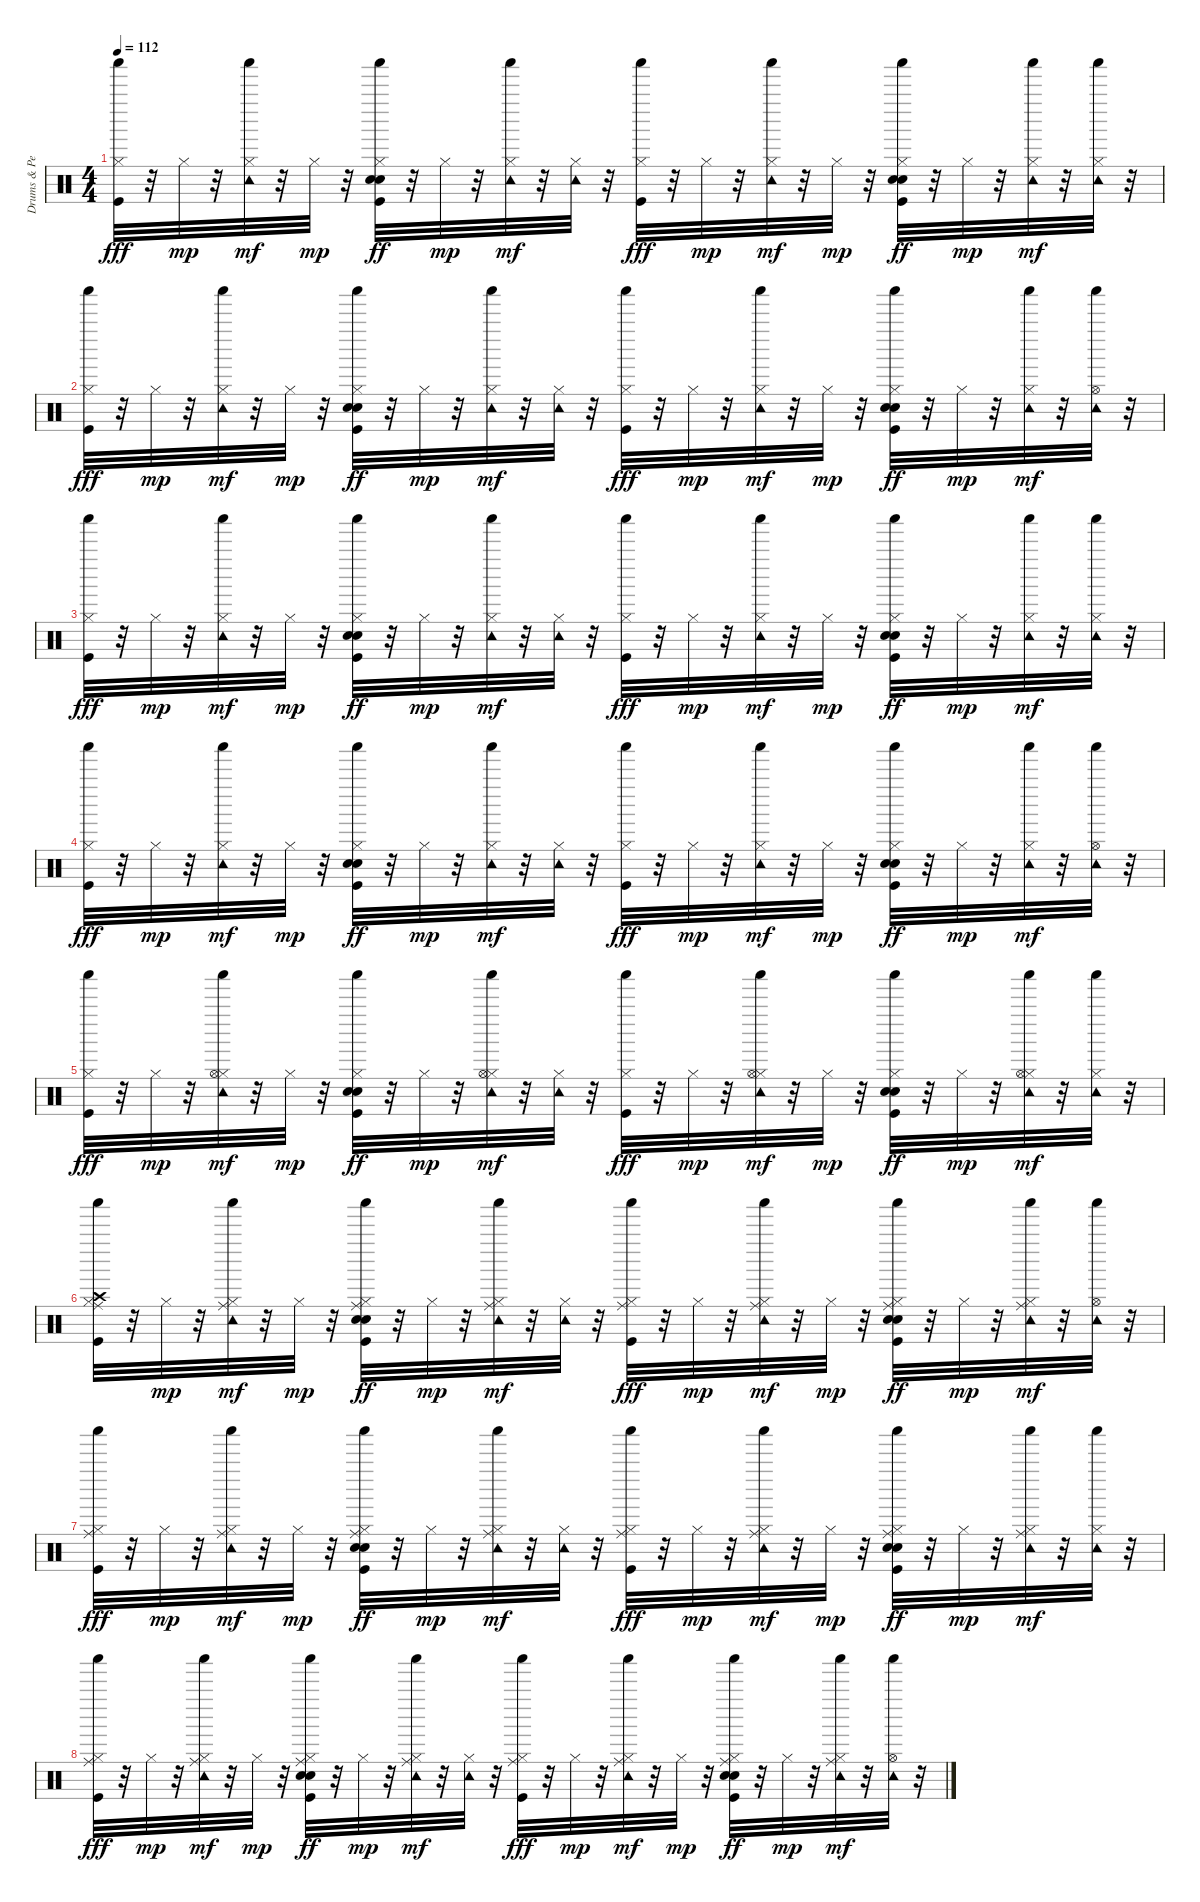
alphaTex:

\track ("Drums & Percussion" "Drums & Pe") {instrument percussion}
\staff {score}
\articulation defaults
\ts (4 4)
\tempo 112
\clef neutral
\ks c
("Shaker (hit)" "Hi-Hat (closed)" "Kick (hit)").32{dy fff} r.32 "Hi-Hat (closed)".32{dy mp} r.32 ("Shaker (hit)" "Hi-Hat (closed)" "Tambourine (hit)").32{dy mf} r.32 "Hi-Hat (closed)".32{dy mp} r.32 ("Shaker (hit)" "Snare (hit) 2" "Hi-Hat (closed)" "Hand Clap (hit)" "Kick (hit)").32{dy ff} r.32 "Hi-Hat (closed)".32{dy mp} r.32 ("Shaker (hit)" "Hi-Hat (closed)" "Tambourine (hit)").32{dy mf} r.32 ("Hi-Hat (closed)" "Tambourine (hit)").32 r.32 ("Shaker (hit)" "Hi-Hat (closed)" "Kick (hit)").32{dy fff} r.32 "Hi-Hat (closed)".32{dy mp} r.32 ("Shaker (hit)" "Hi-Hat (closed)" "Tambourine (hit)").32{dy mf} r.32 "Hi-Hat (closed)".32{dy mp} r.32 ("Shaker (hit)" "Snare (hit) 2" "Hi-Hat (closed)" "Hand Clap (hit)" "Kick (hit)").32{dy ff} r.32 "Hi-Hat (closed)".32{dy mp} r.32 ("Shaker (hit)" "Hi-Hat (closed)" "Tambourine (hit)").32{dy mf} r.32 ("Shaker (hit)" "Hi-Hat (closed)" "Tambourine (hit)").32 r.32 |
("Shaker (hit)" "Hi-Hat (closed)" "Kick (hit)").32{dy fff} r.32 "Hi-Hat (closed)".32{dy mp} r.32 ("Shaker (hit)" "Hi-Hat (closed)" "Tambourine (hit)").32{dy mf} r.32 "Hi-Hat (closed)".32{dy mp} r.32 ("Shaker (hit)" "Snare (hit) 2" "Hi-Hat (closed)" "Hand Clap (hit)" "Kick (hit)").32{dy ff} r.32 "Hi-Hat (closed)".32{dy mp} r.32 ("Shaker (hit)" "Hi-Hat (closed)" "Tambourine (hit)").32{dy mf} r.32 ("Hi-Hat (closed)" "Tambourine (hit)").32 r.32 ("Shaker (hit)" "Hi-Hat (closed)" "Kick (hit)").32{dy fff} r.32 "Hi-Hat (closed)".32{dy mp} r.32 ("Shaker (hit)" "Hi-Hat (closed)" "Tambourine (hit)").32{dy mf} r.32 "Hi-Hat (closed)".32{dy mp} r.32 ("Shaker (hit)" "Snare (hit) 2" "Hi-Hat (closed)" "Hand Clap (hit)" "Kick (hit)").32{dy ff} r.32 "Hi-Hat (closed)".32{dy mp} r.32 ("Shaker (hit)" "Hi-Hat (closed)" "Tambourine (hit)").32{dy mf} r.32 ("Hi-Hat (open)" "Shaker (hit)" "Tambourine (hit)").32 r.32 |
("Shaker (hit)" "Hi-Hat (closed)" "Kick (hit)").32{dy fff} r.32 "Hi-Hat (closed)".32{dy mp} r.32 ("Shaker (hit)" "Hi-Hat (closed)" "Tambourine (hit)").32{dy mf} r.32 "Hi-Hat (closed)".32{dy mp} r.32 ("Shaker (hit)" "Snare (hit) 2" "Hi-Hat (closed)" "Hand Clap (hit)" "Kick (hit)").32{dy ff} r.32 "Hi-Hat (closed)".32{dy mp} r.32 ("Shaker (hit)" "Hi-Hat (closed)" "Tambourine (hit)").32{dy mf} r.32 ("Hi-Hat (closed)" "Tambourine (hit)").32 r.32 ("Shaker (hit)" "Hi-Hat (closed)" "Kick (hit)").32{dy fff} r.32 "Hi-Hat (closed)".32{dy mp} r.32 ("Shaker (hit)" "Hi-Hat (closed)" "Tambourine (hit)").32{dy mf} r.32 "Hi-Hat (closed)".32{dy mp} r.32 ("Shaker (hit)" "Snare (hit) 2" "Hi-Hat (closed)" "Hand Clap (hit)" "Kick (hit)").32{dy ff} r.32 "Hi-Hat (closed)".32{dy mp} r.32 ("Shaker (hit)" "Hi-Hat (closed)" "Tambourine (hit)").32{dy mf} r.32 ("Shaker (hit)" "Hi-Hat (closed)" "Tambourine (hit)").32 r.32 |
("Shaker (hit)" "Hi-Hat (closed)" "Kick (hit)").32{dy fff} r.32 "Hi-Hat (closed)".32{dy mp} r.32 ("Shaker (hit)" "Hi-Hat (closed)" "Tambourine (hit)").32{dy mf} r.32 "Hi-Hat (closed)".32{dy mp} r.32 ("Shaker (hit)" "Snare (hit) 2" "Hi-Hat (closed)" "Hand Clap (hit)" "Kick (hit)").32{dy ff} r.32 "Hi-Hat (closed)".32{dy mp} r.32 ("Shaker (hit)" "Hi-Hat (closed)" "Tambourine (hit)").32{dy mf} r.32 ("Hi-Hat (closed)" "Tambourine (hit)").32 r.32 ("Shaker (hit)" "Hi-Hat (closed)" "Kick (hit)").32{dy fff} r.32 "Hi-Hat (closed)".32{dy mp} r.32 ("Shaker (hit)" "Hi-Hat (closed)" "Tambourine (hit)").32{dy mf} r.32 "Hi-Hat (closed)".32{dy mp} r.32 ("Shaker (hit)" "Snare (hit) 2" "Hi-Hat (closed)" "Hand Clap (hit)" "Kick (hit)").32{dy ff} r.32 "Hi-Hat (closed)".32{dy mp} r.32 ("Shaker (hit)" "Hi-Hat (closed)" "Tambourine (hit)").32{dy mf} r.32 ("Hi-Hat (open)" "Shaker (hit)" "Tambourine (hit)").32 r.32 |
("Shaker (hit)" "Hi-Hat (closed)" "Kick (hit)").32{dy fff} r.32 "Hi-Hat (closed)".32{dy mp} r.32 ("Shaker (hit)" "Hi-Hat (closed)" "Hi-Hat (open)" "Tambourine (hit)").32{dy mf} r.32 "Hi-Hat (closed)".32{dy mp} r.32 ("Shaker (hit)" "Snare (hit) 2" "Hi-Hat (closed)" "Hand Clap (hit)" "Kick (hit)").32{dy ff} r.32 "Hi-Hat (closed)".32{dy mp} r.32 ("Shaker (hit)" "Hi-Hat (closed)" "Hi-Hat (open)" "Tambourine (hit)").32{dy mf} r.32 ("Hi-Hat (closed)" "Tambourine (hit)").32 r.32 ("Shaker (hit)" "Hi-Hat (closed)" "Kick (hit)").32{dy fff} r.32 "Hi-Hat (closed)".32{dy mp} r.32 ("Shaker (hit)" "Hi-Hat (closed)" "Hi-Hat (open)" "Tambourine (hit)").32{dy mf} r.32 "Hi-Hat (closed)".32{dy mp} r.32 ("Shaker (hit)" "Snare (hit) 2" "Hi-Hat (closed)" "Hand Clap (hit)" "Kick (hit)").32{dy ff} r.32 "Hi-Hat (closed)".32{dy mp} r.32 ("Shaker (hit)" "Hi-Hat (closed)" "Hi-Hat (open)" "Tambourine (hit)").32{dy mf} r.32 ("Shaker (hit)" "Hi-Hat (closed)" "Tambourine (hit)").32 r.32 |
("Shaker (hit)" "Hi-Hat (closed)" "Ride (middle)" "Crash high (hit)" "Kick (hit)").32 r.32 "Hi-Hat (closed)".32{dy mp} r.32 ("Shaker (hit)" "Hi-Hat (closed)" "Ride (middle)" "Tambourine (hit)").32{dy mf} r.32 "Hi-Hat (closed)".32{dy mp} r.32 ("Shaker (hit)" "Snare (hit) 2" "Hi-Hat (closed)" "Ride (middle)" "Hand Clap (hit)" "Kick (hit)").32{dy ff} r.32 "Hi-Hat (closed)".32{dy mp} r.32 ("Shaker (hit)" "Hi-Hat (closed)" "Ride (middle)" "Tambourine (hit)").32{dy mf} r.32 ("Hi-Hat (closed)" "Tambourine (hit)").32 r.32 ("Shaker (hit)" "Hi-Hat (closed)" "Ride (middle)" "Kick (hit)").32{dy fff} r.32 "Hi-Hat (closed)".32{dy mp} r.32 ("Shaker (hit)" "Hi-Hat (closed)" "Ride (middle)" "Tambourine (hit)").32{dy mf} r.32 "Hi-Hat (closed)".32{dy mp} r.32 ("Shaker (hit)" "Snare (hit) 2" "Hi-Hat (closed)" "Ride (middle)" "Hand Clap (hit)" "Kick (hit)").32{dy ff} r.32 "Hi-Hat (closed)".32{dy mp} r.32 ("Shaker (hit)" "Hi-Hat (closed)" "Ride (middle)" "Tambourine (hit)").32{dy mf} r.32 ("Hi-Hat (open)" "Shaker (hit)" "Tambourine (hit)").32 r.32 |
("Shaker (hit)" "Hi-Hat (closed)" "Ride (middle)" "Kick (hit)").32{dy fff} r.32 "Hi-Hat (closed)".32{dy mp} r.32 ("Shaker (hit)" "Hi-Hat (closed)" "Ride (middle)" "Tambourine (hit)").32{dy mf} r.32 "Hi-Hat (closed)".32{dy mp} r.32 ("Shaker (hit)" "Snare (hit) 2" "Hi-Hat (closed)" "Ride (middle)" "Hand Clap (hit)" "Kick (hit)").32{dy ff} r.32 "Hi-Hat (closed)".32{dy mp} r.32 ("Shaker (hit)" "Hi-Hat (closed)" "Ride (middle)" "Tambourine (hit)").32{dy mf} r.32 ("Hi-Hat (closed)" "Tambourine (hit)").32 r.32 ("Shaker (hit)" "Hi-Hat (closed)" "Ride (middle)" "Kick (hit)").32{dy fff} r.32 "Hi-Hat (closed)".32{dy mp} r.32 ("Shaker (hit)" "Hi-Hat (closed)" "Ride (middle)" "Tambourine (hit)").32{dy mf} r.32 "Hi-Hat (closed)".32{dy mp} r.32 ("Shaker (hit)" "Snare (hit) 2" "Hi-Hat (closed)" "Ride (middle)" "Hand Clap (hit)" "Kick (hit)").32{dy ff} r.32 "Hi-Hat (closed)".32{dy mp} r.32 ("Shaker (hit)" "Hi-Hat (closed)" "Ride (middle)" "Tambourine (hit)").32{dy mf} r.32 ("Shaker (hit)" "Hi-Hat (closed)" "Tambourine (hit)").32 r.32 |
("Shaker (hit)" "Hi-Hat (closed)" "Ride (middle)" "Kick (hit)").32{dy fff} r.32 "Hi-Hat (closed)".32{dy mp} r.32 ("Shaker (hit)" "Hi-Hat (closed)" "Ride (middle)" "Tambourine (hit)").32{dy mf} r.32 "Hi-Hat (closed)".32{dy mp} r.32 ("Shaker (hit)" "Snare (hit) 2" "Hi-Hat (closed)" "Ride (middle)" "Hand Clap (hit)" "Kick (hit)").32{dy ff} r.32 "Hi-Hat (closed)".32{dy mp} r.32 ("Shaker (hit)" "Hi-Hat (closed)" "Ride (middle)" "Tambourine (hit)").32{dy mf} r.32 ("Hi-Hat (closed)" "Tambourine (hit)").32 r.32 ("Shaker (hit)" "Hi-Hat (closed)" "Ride (middle)" "Kick (hit)").32{dy fff} r.32 "Hi-Hat (closed)".32{dy mp} r.32 ("Shaker (hit)" "Hi-Hat (closed)" "Ride (middle)" "Tambourine (hit)").32{dy mf} r.32 "Hi-Hat (closed)".32{dy mp} r.32 ("Shaker (hit)" "Snare (hit) 2" "Hi-Hat (closed)" "Ride (middle)" "Hand Clap (hit)" "Kick (hit)").32{dy ff} r.32 "Hi-Hat (closed)".32{dy mp} r.32 ("Shaker (hit)" "Hi-Hat (closed)" "Ride (middle)" "Tambourine (hit)").32{dy mf} r.32 ("Hi-Hat (open)" "Shaker (hit)" "Tambourine (hit)").32 r.32
